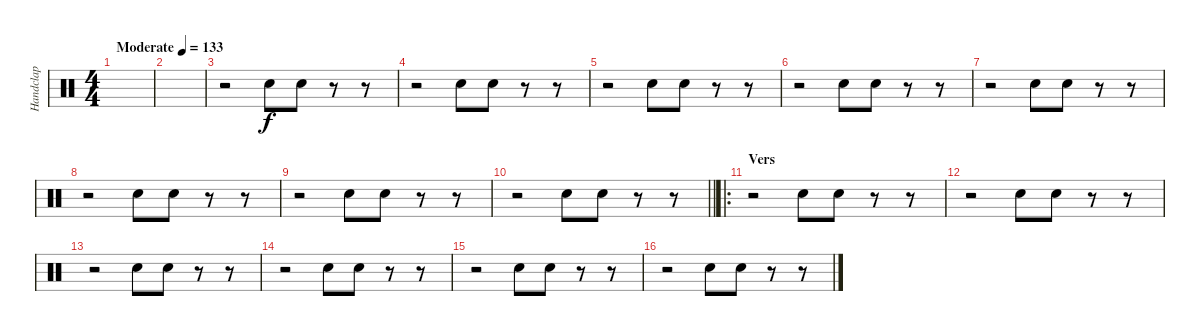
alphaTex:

\track ("Handclap" "Handclap") {instrument percussion}
\staff {score}
\articulation defaults
\ts (4 4)
\tempo (133 "Moderate")
\clef neutral
\ks c
|
|
r.2 "Hand Clap (hit)".8 "Hand Clap (hit)".8 r.8 r.8 |
r.2 "Hand Clap (hit)".8 "Hand Clap (hit)".8 r.8 r.8 |
r.2 "Hand Clap (hit)".8 "Hand Clap (hit)".8 r.8 r.8 |
r.2 "Hand Clap (hit)".8 "Hand Clap (hit)".8 r.8 r.8 |
r.2 "Hand Clap (hit)".8 "Hand Clap (hit)".8 r.8 r.8 |
r.2 "Hand Clap (hit)".8 "Hand Clap (hit)".8 r.8 r.8 |
r.2 "Hand Clap (hit)".8 "Hand Clap (hit)".8 r.8 r.8 |
\barLineRight lightlight
r.2 "Hand Clap (hit)".8 "Hand Clap (hit)".8 r.8 r.8 |
\ro
\section ("" "Vers")
r.2 "Hand Clap (hit)".8 "Hand Clap (hit)".8 r.8 r.8 |
r.2 "Hand Clap (hit)".8 "Hand Clap (hit)".8 r.8 r.8 |
r.2 "Hand Clap (hit)".8 "Hand Clap (hit)".8 r.8 r.8 |
r.2 "Hand Clap (hit)".8 "Hand Clap (hit)".8 r.8 r.8 |
r.2 "Hand Clap (hit)".8 "Hand Clap (hit)".8 r.8 r.8 |
r.2 "Hand Clap (hit)".8 "Hand Clap (hit)".8 r.8 r.8
